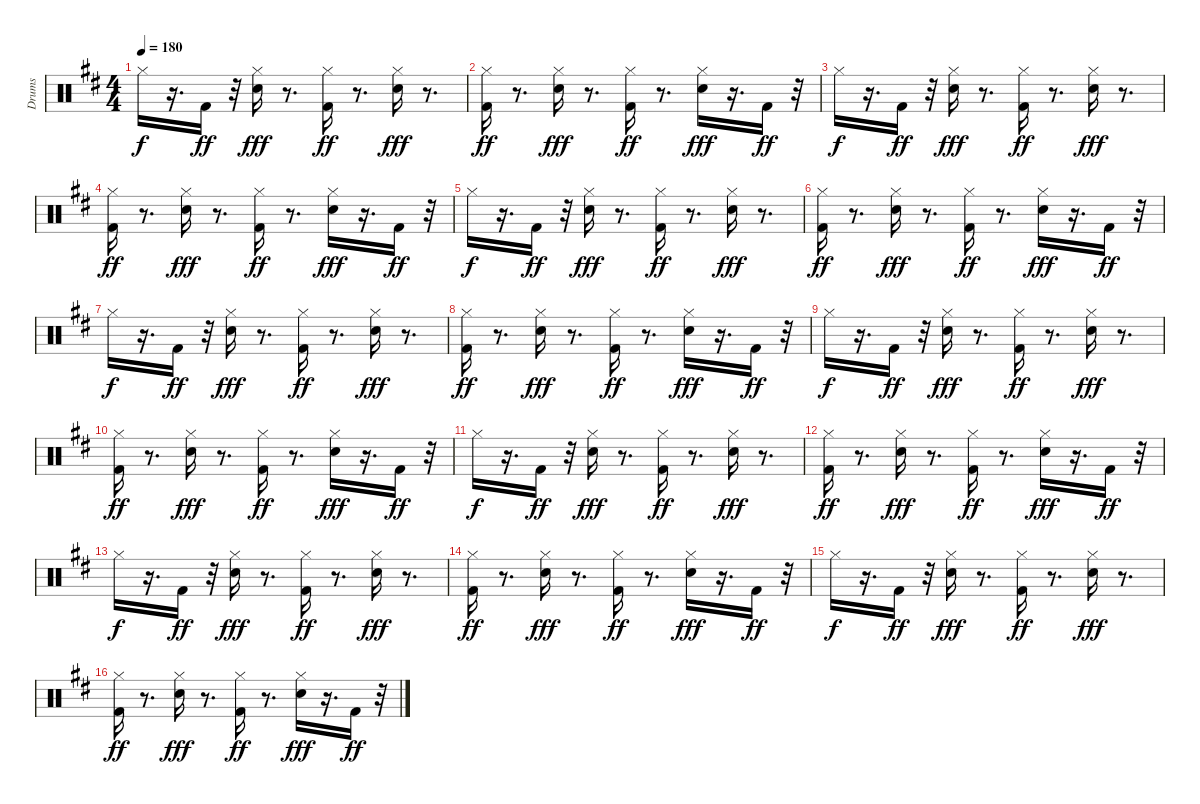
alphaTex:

\track ("Drums" "Drums") {instrument percussion}
\staff {score}
\articulation defaults
\ts (4 4)
\tempo 180
\clef neutral
\ks bminor "Hi-Hat (closed)".16{dy f}
r.16{d} "Kick (hit) 2".16{dy ff} r.32 ("Snare (hit) 2" "Hi-Hat (closed)").16{dy fff} r.8{d} ("Kick (hit) 2" "Hi-Hat (closed)").16{dy ff} r.8{d} ("Snare (hit) 2" "Hi-Hat (closed)").16{dy fff} r.8{d} |
("Kick (hit) 2" "Hi-Hat (closed)").16{dy ff} r.8{d} ("Snare (hit) 2" "Hi-Hat (closed)").16{dy fff} r.8{d} ("Kick (hit) 2" "Hi-Hat (closed)").16{dy ff} r.8{d} ("Snare (hit) 2" "Hi-Hat (closed)").16{dy fff} r.16{d} "Kick (hit) 2".16{dy ff} r.32 |
"Hi-Hat (closed)".16{dy f} r.16{d} "Kick (hit) 2".16{dy ff} r.32 ("Snare (hit) 2" "Hi-Hat (closed)").16{dy fff} r.8{d} ("Kick (hit) 2" "Hi-Hat (closed)").16{dy ff} r.8{d} ("Snare (hit) 2" "Hi-Hat (closed)").16{dy fff} r.8{d} |
("Kick (hit) 2" "Hi-Hat (closed)").16{dy ff} r.8{d} ("Snare (hit) 2" "Hi-Hat (closed)").16{dy fff} r.8{d} ("Kick (hit) 2" "Hi-Hat (closed)").16{dy ff} r.8{d} ("Snare (hit) 2" "Hi-Hat (closed)").16{dy fff} r.16{d} "Kick (hit) 2".16{dy ff} r.32 |
"Hi-Hat (closed)".16{dy f} r.16{d} "Kick (hit) 2".16{dy ff} r.32 ("Snare (hit) 2" "Hi-Hat (closed)").16{dy fff} r.8{d} ("Kick (hit) 2" "Hi-Hat (closed)").16{dy ff} r.8{d} ("Snare (hit) 2" "Hi-Hat (closed)").16{dy fff} r.8{d} |
("Kick (hit) 2" "Hi-Hat (closed)").16{dy ff} r.8{d} ("Snare (hit) 2" "Hi-Hat (closed)").16{dy fff} r.8{d} ("Kick (hit) 2" "Hi-Hat (closed)").16{dy ff} r.8{d} ("Snare (hit) 2" "Hi-Hat (closed)").16{dy fff} r.16{d} "Kick (hit) 2".16{dy ff} r.32 |
"Hi-Hat (closed)".16{dy f} r.16{d} "Kick (hit) 2".16{dy ff} r.32 ("Snare (hit) 2" "Hi-Hat (closed)").16{dy fff} r.8{d} ("Kick (hit) 2" "Hi-Hat (closed)").16{dy ff} r.8{d} ("Snare (hit) 2" "Hi-Hat (closed)").16{dy fff} r.8{d} |
("Kick (hit) 2" "Hi-Hat (closed)").16{dy ff} r.8{d} ("Snare (hit) 2" "Hi-Hat (closed)").16{dy fff} r.8{d} ("Kick (hit) 2" "Hi-Hat (closed)").16{dy ff} r.8{d} ("Snare (hit) 2" "Hi-Hat (closed)").16{dy fff} r.16{d} "Kick (hit) 2".16{dy ff} r.32 |
"Hi-Hat (closed)".16{dy f} r.16{d} "Kick (hit) 2".16{dy ff} r.32 ("Snare (hit) 2" "Hi-Hat (closed)").16{dy fff} r.8{d} ("Kick (hit) 2" "Hi-Hat (closed)").16{dy ff} r.8{d} ("Snare (hit) 2" "Hi-Hat (closed)").16{dy fff} r.8{d} |
("Kick (hit) 2" "Hi-Hat (closed)").16{dy ff} r.8{d} ("Snare (hit) 2" "Hi-Hat (closed)").16{dy fff} r.8{d} ("Kick (hit) 2" "Hi-Hat (closed)").16{dy ff} r.8{d} ("Snare (hit) 2" "Hi-Hat (closed)").16{dy fff} r.16{d} "Kick (hit) 2".16{dy ff} r.32 |
"Hi-Hat (closed)".16{dy f} r.16{d} "Kick (hit) 2".16{dy ff} r.32 ("Snare (hit) 2" "Hi-Hat (closed)").16{dy fff} r.8{d} ("Kick (hit) 2" "Hi-Hat (closed)").16{dy ff} r.8{d} ("Snare (hit) 2" "Hi-Hat (closed)").16{dy fff} r.8{d} |
("Kick (hit) 2" "Hi-Hat (closed)").16{dy ff} r.8{d} ("Snare (hit) 2" "Hi-Hat (closed)").16{dy fff} r.8{d} ("Kick (hit) 2" "Hi-Hat (closed)").16{dy ff} r.8{d} ("Snare (hit) 2" "Hi-Hat (closed)").16{dy fff} r.16{d} "Kick (hit) 2".16{dy ff} r.32 |
"Hi-Hat (closed)".16{dy f} r.16{d} "Kick (hit) 2".16{dy ff} r.32 ("Snare (hit) 2" "Hi-Hat (closed)").16{dy fff} r.8{d} ("Kick (hit) 2" "Hi-Hat (closed)").16{dy ff} r.8{d} ("Snare (hit) 2" "Hi-Hat (closed)").16{dy fff} r.8{d} |
("Kick (hit) 2" "Hi-Hat (closed)").16{dy ff} r.8{d} ("Snare (hit) 2" "Hi-Hat (closed)").16{dy fff} r.8{d} ("Kick (hit) 2" "Hi-Hat (closed)").16{dy ff} r.8{d} ("Snare (hit) 2" "Hi-Hat (closed)").16{dy fff} r.16{d} "Kick (hit) 2".16{dy ff} r.32 |
"Hi-Hat (closed)".16{dy f} r.16{d} "Kick (hit) 2".16{dy ff} r.32 ("Snare (hit) 2" "Hi-Hat (closed)").16{dy fff} r.8{d} ("Kick (hit) 2" "Hi-Hat (closed)").16{dy ff} r.8{d} ("Snare (hit) 2" "Hi-Hat (closed)").16{dy fff} r.8{d} |
("Kick (hit) 2" "Hi-Hat (closed)").16{dy ff} r.8{d} ("Snare (hit) 2" "Hi-Hat (closed)").16{dy fff} r.8{d} ("Kick (hit) 2" "Hi-Hat (closed)").16{dy ff} r.8{d} ("Snare (hit) 2" "Hi-Hat (closed)").16{dy fff} r.16{d} "Kick (hit) 2".16{dy ff} r.32
